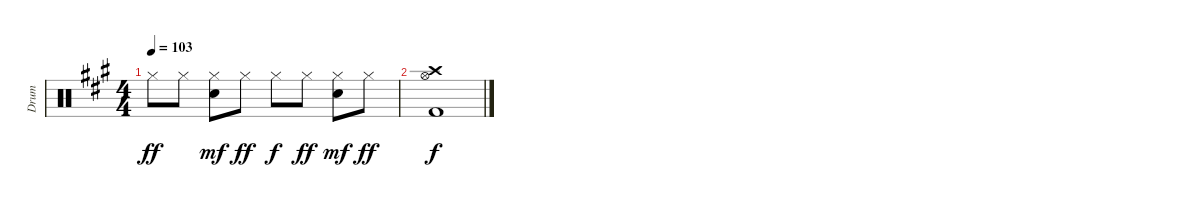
\track ("Drum" "Drum") {instrument percussion}
\staff {score}
\articulation defaults
\ts (4 4)
\tempo 103
\clef neutral
\ks a "Hi-Hat (closed)".8{dy ff} "Hi-Hat (closed)".8
("Hi-Hat (closed)" "Electric Snare (hit)").8{dy mf} "Hi-Hat (closed)".8{dy ff} "Hi-Hat (closed)".8{dy f} "Hi-Hat (closed)".8{dy ff} ("Hi-Hat (closed)" "Electric Snare (hit)").8{dy mf} "Hi-Hat (closed)".8{dy ff} |
("Crash high (hit)" "Hi-Hat (open)" "Kick (hit) 2").1{dy f}
